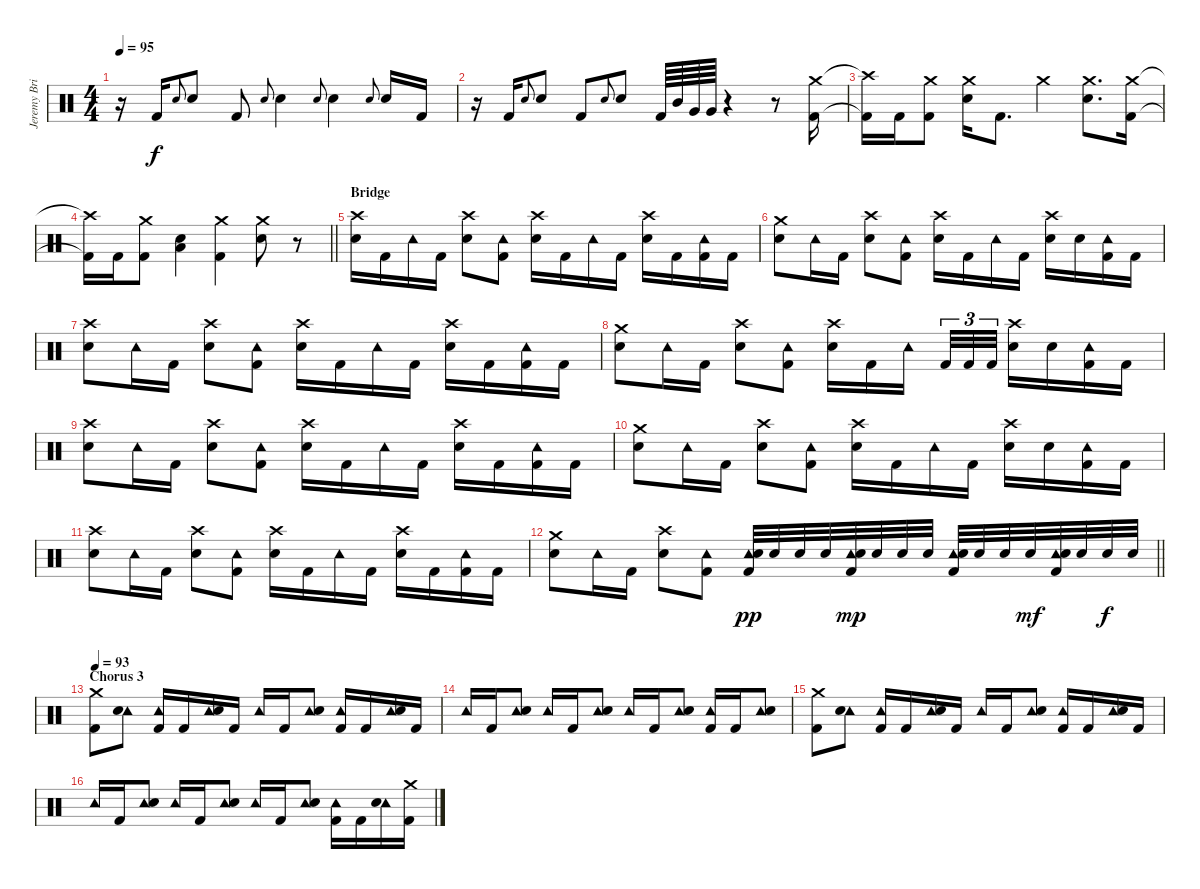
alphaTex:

\track ("Jeremy Brian [Drums]" "Jeremy Bri") {instrument percussion}
\staff {score}
\articulation defaults
\ts (4 4)
\tempo 95
\clef neutral
\ks c
r.16{dy f} "Kick (hit) 2".16 "Electric Snare (hit)".8{gr onbeat} "Electric Snare (hit)".8 "Kick (hit) 2".8 "Electric Snare (hit)".8{gr onbeat} "Electric Snare (hit)".4 "Electric Snare (hit)".8{gr onbeat} "Electric Snare (hit)".4 "Electric Snare (hit)".8{gr onbeat} "Electric Snare (hit)".16 "Kick (hit) 2".16 |
r.16 "Kick (hit) 2".16 "Electric Snare (hit)".8{gr onbeat} "Electric Snare (hit)".8 "Kick (hit) 2".8 "Electric Snare (hit)".8{gr onbeat} "Electric Snare (hit)".8 "Kick (hit) 2".64 "Mid Tom (hit)".64 "Very Low Tom (hit)".64 "Very Low Tom (hit)".64 r.4 r.8 ("Crash medium (hit)" "Kick (hit) 2").16 |
("Crash high (hit)"{t} "Kick (hit) 2"{t}).16 "Kick (hit) 2".16 ("Crash medium (hit)" "Kick (hit) 2").8 ("Crash medium (hit)" "Electric Snare (hit)").16 "Kick (hit) 2".8{d} "Crash medium (hit)".4 ("Crash medium (hit)" "Electric Snare (hit)").8{d} ("Crash medium (hit)" "Kick (hit) 2").16 |
\barLineRight lightlight
("Crash high (hit)"{t} "Kick (hit) 2"{t}).16 "Kick (hit) 2".16 ("Crash medium (hit)" "Kick (hit) 2").8 ("Low Floor Tom (hit)" "Electric Snare (hit)").4 ("Crash medium (hit)" "Kick (hit) 2").4 ("Crash medium (hit)" "Electric Snare (hit)").8 r.8{volume 0} |
\section ("" "Bridge")
("Crash high (hit)" "Electric Snare (hit)").16{volume 16} "Kick (hit) 2".16 "Tambourine (hit)".16 "Kick (hit) 2".16 ("Crash high (hit)" "Electric Snare (hit)").8 ("Tambourine (hit)" "Kick (hit) 2").8 ("Crash high (hit)" "Electric Snare (hit)").16 "Kick (hit) 2".16 "Tambourine (hit)".16 "Kick (hit) 2".16 ("Crash high (hit)" "Electric Snare (hit)").16 "Kick (hit) 2".16 ("Tambourine (hit)" "Kick (hit) 2").16 "Kick (hit) 2".16 |
("Crash medium (hit)" "Electric Snare (hit)").8 "Tambourine (hit)".16 "Kick (hit) 2".16 ("Crash high (hit)" "Electric Snare (hit)").8 ("Tambourine (hit)" "Kick (hit) 2").8 ("Crash high (hit)" "Electric Snare (hit)").16 "Kick (hit) 2".16 "Tambourine (hit)".16 "Kick (hit) 2".16 ("Crash high (hit)" "Electric Snare (hit)").16 "Electric Snare (hit)".16 ("Tambourine (hit)" "Kick (hit) 2").16 "Kick (hit) 2".16 |
("Crash high (hit)" "Electric Snare (hit)").8 "Tambourine (hit)".16 "Kick (hit) 2".16 ("Crash high (hit)" "Electric Snare (hit)").8 ("Tambourine (hit)" "Kick (hit) 2").8 ("Crash high (hit)" "Electric Snare (hit)").16 "Kick (hit) 2".16 "Tambourine (hit)".16 "Kick (hit) 2".16 ("Crash high (hit)" "Electric Snare (hit)").16 "Kick (hit) 2".16 ("Tambourine (hit)" "Kick (hit) 2").16 "Kick (hit) 2".16 |
("Crash medium (hit)" "Electric Snare (hit)").8 "Tambourine (hit)".16 "Kick (hit) 2".16 ("Crash high (hit)" "Electric Snare (hit)").8 ("Tambourine (hit)" "Kick (hit) 2").8 ("Crash high (hit)" "Electric Snare (hit)").16 "Kick (hit) 2".16 "Tambourine (hit)".16{beam splitsecondary} "Kick (hit) 2".32{tu (3 2)} "Kick (hit) 2".32{tu (3 2)} "Kick (hit) 2".32{tu (3 2)} ("Crash high (hit)" "Electric Snare (hit)").16 "Electric Snare (hit)".16 ("Tambourine (hit)" "Kick (hit) 2").16 "Kick (hit) 2".16 |
("Crash high (hit)" "Electric Snare (hit)").8 "Tambourine (hit)".16 "Kick (hit) 2".16 ("Crash high (hit)" "Electric Snare (hit)").8 ("Tambourine (hit)" "Kick (hit) 2").8 ("Crash high (hit)" "Electric Snare (hit)").16 "Kick (hit) 2".16 "Tambourine (hit)".16 "Kick (hit) 2".16 ("Crash high (hit)" "Electric Snare (hit)").16 "Kick (hit) 2".16 ("Tambourine (hit)" "Kick (hit) 2").16 "Kick (hit) 2".16 |
("Crash medium (hit)" "Electric Snare (hit)").8 "Tambourine (hit)".16 "Kick (hit) 2".16 ("Crash high (hit)" "Electric Snare (hit)").8 ("Tambourine (hit)" "Kick (hit) 2").8 ("Crash high (hit)" "Electric Snare (hit)").16 "Kick (hit) 2".16 "Tambourine (hit)".16 "Kick (hit) 2".16 ("Crash high (hit)" "Electric Snare (hit)").16 "Electric Snare (hit)".16 ("Tambourine (hit)" "Kick (hit) 2").16 "Kick (hit) 2".16 |
("Crash high (hit)" "Electric Snare (hit)").8 "Tambourine (hit)".16 "Kick (hit) 2".16 ("Crash high (hit)" "Electric Snare (hit)").8 ("Tambourine (hit)" "Kick (hit) 2").8 ("Crash high (hit)" "Electric Snare (hit)").16 "Kick (hit) 2".16 "Tambourine (hit)".16 "Kick (hit) 2".16 ("Crash high (hit)" "Electric Snare (hit)").16 "Kick (hit) 2".16 ("Tambourine (hit)" "Kick (hit) 2").16 "Kick (hit) 2".16 |
\barLineRight lightlight
("Crash medium (hit)" "Electric Snare (hit)").8 "Tambourine (hit)".16 "Kick (hit) 2".16 ("Crash high (hit)" "Electric Snare (hit)").8 ("Tambourine (hit)" "Kick (hit) 2").8 ("Tambourine (hit)" "Electric Snare (hit)" "Kick (hit) 2").32{dy pp} "Electric Snare (hit)".32 "Electric Snare (hit)".32 "Electric Snare (hit)".32 ("Tambourine (hit)" "Electric Snare (hit)" "Kick (hit) 2").32{dy mp} "Electric Snare (hit)".32 "Electric Snare (hit)".32 "Electric Snare (hit)".32 ("Tambourine (hit)" "Electric Snare (hit)" "Kick (hit) 2").32 "Electric Snare (hit)".32 "Electric Snare (hit)".32 "Electric Snare (hit)".32{dy mf} ("Tambourine (hit)" "Electric Snare (hit)" "Kick (hit) 2").32 "Electric Snare (hit)".32 "Electric Snare (hit)".32{dy f} "Electric Snare (hit)".32 |
\section ("" "Chorus 3")
\tempo 93
("Crash medium (hit)" "Kick (hit) 2").8 ("Tambourine (hit)" "Electric Snare (hit)").8 ("Tambourine (hit)" "Kick (hit) 2").16 "Kick (hit) 2".16 ("Tambourine (hit)" "Electric Snare (hit)").16 "Kick (hit) 2".16 "Tambourine (hit)".16 "Kick (hit) 2".16 ("Tambourine (hit)" "Electric Snare (hit)").8 ("Tambourine (hit)" "Kick (hit) 2").16 "Kick (hit) 2".16 ("Tambourine (hit)" "Electric Snare (hit)").16 "Kick (hit) 2".16 |
"Tambourine (hit)".16 "Kick (hit) 2".16 ("Tambourine (hit)" "Electric Snare (hit)").8 "Tambourine (hit)".16 "Kick (hit) 2".16 ("Tambourine (hit)" "Electric Snare (hit)").8 "Tambourine (hit)".16 "Kick (hit) 2".16 ("Tambourine (hit)" "Electric Snare (hit)").8 ("Tambourine (hit)" "Kick (hit) 2").16 "Kick (hit) 2".16 ("Tambourine (hit)" "Electric Snare (hit)").8 |
("Crash medium (hit)" "Kick (hit) 2").8 ("Tambourine (hit)" "Electric Snare (hit)").8 ("Tambourine (hit)" "Kick (hit) 2").16 "Kick (hit) 2".16 ("Tambourine (hit)" "Electric Snare (hit)").16 "Kick (hit) 2".16 "Tambourine (hit)".16 "Kick (hit) 2".16 ("Tambourine (hit)" "Electric Snare (hit)").8 ("Tambourine (hit)" "Kick (hit) 2").16 "Kick (hit) 2".16 ("Tambourine (hit)" "Electric Snare (hit)").16 "Kick (hit) 2".16 |
"Tambourine (hit)".16 "Kick (hit) 2".16 ("Tambourine (hit)" "Electric Snare (hit)").8 "Tambourine (hit)".16 "Kick (hit) 2".16 ("Tambourine (hit)" "Electric Snare (hit)").8 "Tambourine (hit)".16 "Kick (hit) 2".16 ("Tambourine (hit)" "Electric Snare (hit)").8 ("Tambourine (hit)" "Kick (hit) 2").16 "Kick (hit) 2".16 ("Tambourine (hit)" "Electric Snare (hit)").16 ("Crash medium (hit)" "Kick (hit) 2").16
